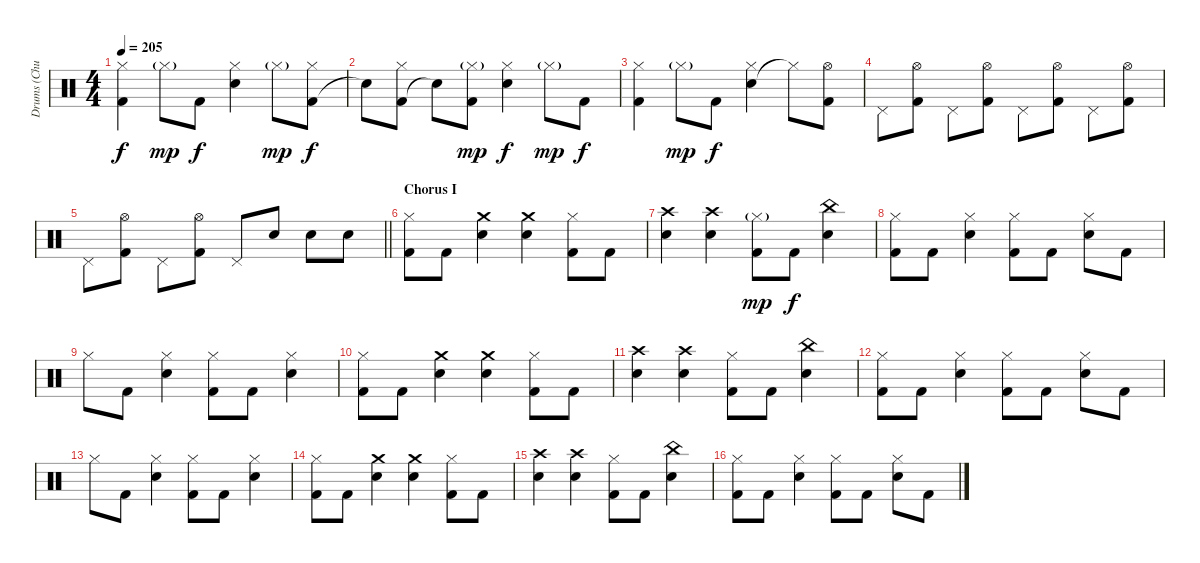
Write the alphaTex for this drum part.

\track ("Drums (Chuck Behler)" "Drums (Chu") {instrument percussion}
\staff {score}
\articulation defaults
\ts (4 4)
\tempo 205
\clef neutral
\ks c
("Hi-Hat (closed)" "Kick (hit) 2").4{dy f} "Hi-Hat (closed)"{g}.8{dy mp} "Kick (hit) 2".8{dy f} ("Electric Snare (hit)" "Hi-Hat (closed)").4 "Hi-Hat (closed)"{g}.8{dy mp} ("Kick (hit) 2" "Hi-Hat (closed)").8{dy f} |
"Snare (hit)"{t}.8 ("Kick (hit) 2" "Hi-Hat (closed)").8 "Snare (hit)"{t}.8 ("Kick (hit) 2" "Hi-Hat (closed)"{g}).8{dy mp} ("Electric Snare (hit)" "Hi-Hat (closed)").4{dy f} "Hi-Hat (closed)"{g}.8{dy mp} "Kick (hit) 2".8{dy f} |
("Hi-Hat (closed)" "Kick (hit) 2").4 "Hi-Hat (closed)"{g}.8{dy mp} "Kick (hit) 2".8{dy f} ("Electric Snare (hit)" "Hi-Hat (closed)").4 "Hi-Hat (closed)"{t}.8 ("Hi-Hat (open)" "Kick (hit) 2").8 |
"Pedal Hi-Hat (hit)".8 ("Hi-Hat (open)" "Kick (hit) 2").8 "Pedal Hi-Hat (hit)".8 ("Hi-Hat (open)" "Kick (hit) 2").8 "Pedal Hi-Hat (hit)".8 ("Hi-Hat (open)" "Kick (hit) 2").8 "Pedal Hi-Hat (hit)".8 ("Hi-Hat (open)" "Kick (hit) 2").8 |
\barLineRight lightlight "Pedal Hi-Hat (hit)".8
("Hi-Hat (open)" "Kick (hit) 2").8 "Pedal Hi-Hat (hit)".8 ("Hi-Hat (open)" "Kick (hit) 2").8 "Pedal Hi-Hat (hit)".8 "Electric Snare (hit)".8 "Electric Snare (hit)".8 "Electric Snare (hit)".8 |
\section ("" "Chorus I")
("Hi-Hat (closed)" "Kick (hit) 2").8 "Kick (hit) 2".8 ("Crash medium (hit)" "Electric Snare (hit)").4 ("Crash medium (hit)" "Electric Snare (hit)").4 ("Kick (hit) 2" "Hi-Hat (closed)").8 "Kick (hit) 2".8 |
("Crash high (hit)" "Electric Snare (hit)").4 ("Crash high (hit)" "Electric Snare (hit)").4 ("Kick (hit) 2" "Hi-Hat (closed)"{g}).8{dy mp} "Kick (hit) 2".8{dy f} ("China (hit)" "Electric Snare (hit)").4 |
("Kick (hit) 2" "Hi-Hat (closed)").8 "Kick (hit) 2".8 ("Electric Snare (hit)" "Hi-Hat (closed)").4 ("Kick (hit) 2" "Hi-Hat (closed)").8 "Kick (hit) 2".8 ("Electric Snare (hit)" "Hi-Hat (closed)").8 "Kick (hit) 2".8 |
"Hi-Hat (closed)".8 "Kick (hit) 2".8 ("Electric Snare (hit)" "Hi-Hat (closed)").4 ("Kick (hit) 2" "Hi-Hat (closed)").8 "Kick (hit) 2".8 ("Electric Snare (hit)" "Hi-Hat (closed)").4 |
("Hi-Hat (closed)" "Kick (hit) 2").8 "Kick (hit) 2".8 ("Crash medium (hit)" "Electric Snare (hit)").4 ("Crash medium (hit)" "Electric Snare (hit)").4 ("Kick (hit) 2" "Hi-Hat (closed)").8 "Kick (hit) 2".8 |
("Crash high (hit)" "Electric Snare (hit)").4 ("Crash high (hit)" "Electric Snare (hit)").4 ("Kick (hit) 2" "Hi-Hat (closed)").8 "Kick (hit) 2".8 ("China (hit)" "Electric Snare (hit)").4 |
("Kick (hit) 2" "Hi-Hat (closed)").8 "Kick (hit) 2".8 ("Electric Snare (hit)" "Hi-Hat (closed)").4 ("Kick (hit) 2" "Hi-Hat (closed)").8 "Kick (hit) 2".8 ("Electric Snare (hit)" "Hi-Hat (closed)").8 "Kick (hit) 2".8 |
"Hi-Hat (closed)".8 "Kick (hit) 2".8 ("Electric Snare (hit)" "Hi-Hat (closed)").4 ("Kick (hit) 2" "Hi-Hat (closed)").8 "Kick (hit) 2".8 ("Electric Snare (hit)" "Hi-Hat (closed)").4 |
("Hi-Hat (closed)" "Kick (hit) 2").8 "Kick (hit) 2".8 ("Crash medium (hit)" "Electric Snare (hit)").4 ("Crash medium (hit)" "Electric Snare (hit)").4 ("Kick (hit) 2" "Hi-Hat (closed)").8 "Kick (hit) 2".8 |
("Crash high (hit)" "Electric Snare (hit)").4 ("Crash high (hit)" "Electric Snare (hit)").4 ("Kick (hit) 2" "Hi-Hat (closed)").8 "Kick (hit) 2".8 ("China (hit)" "Electric Snare (hit)").4 |
("Kick (hit) 2" "Hi-Hat (closed)").8 "Kick (hit) 2".8 ("Electric Snare (hit)" "Hi-Hat (closed)").4 ("Kick (hit) 2" "Hi-Hat (closed)").8 "Kick (hit) 2".8 ("Electric Snare (hit)" "Hi-Hat (closed)").8 "Kick (hit) 2".8
